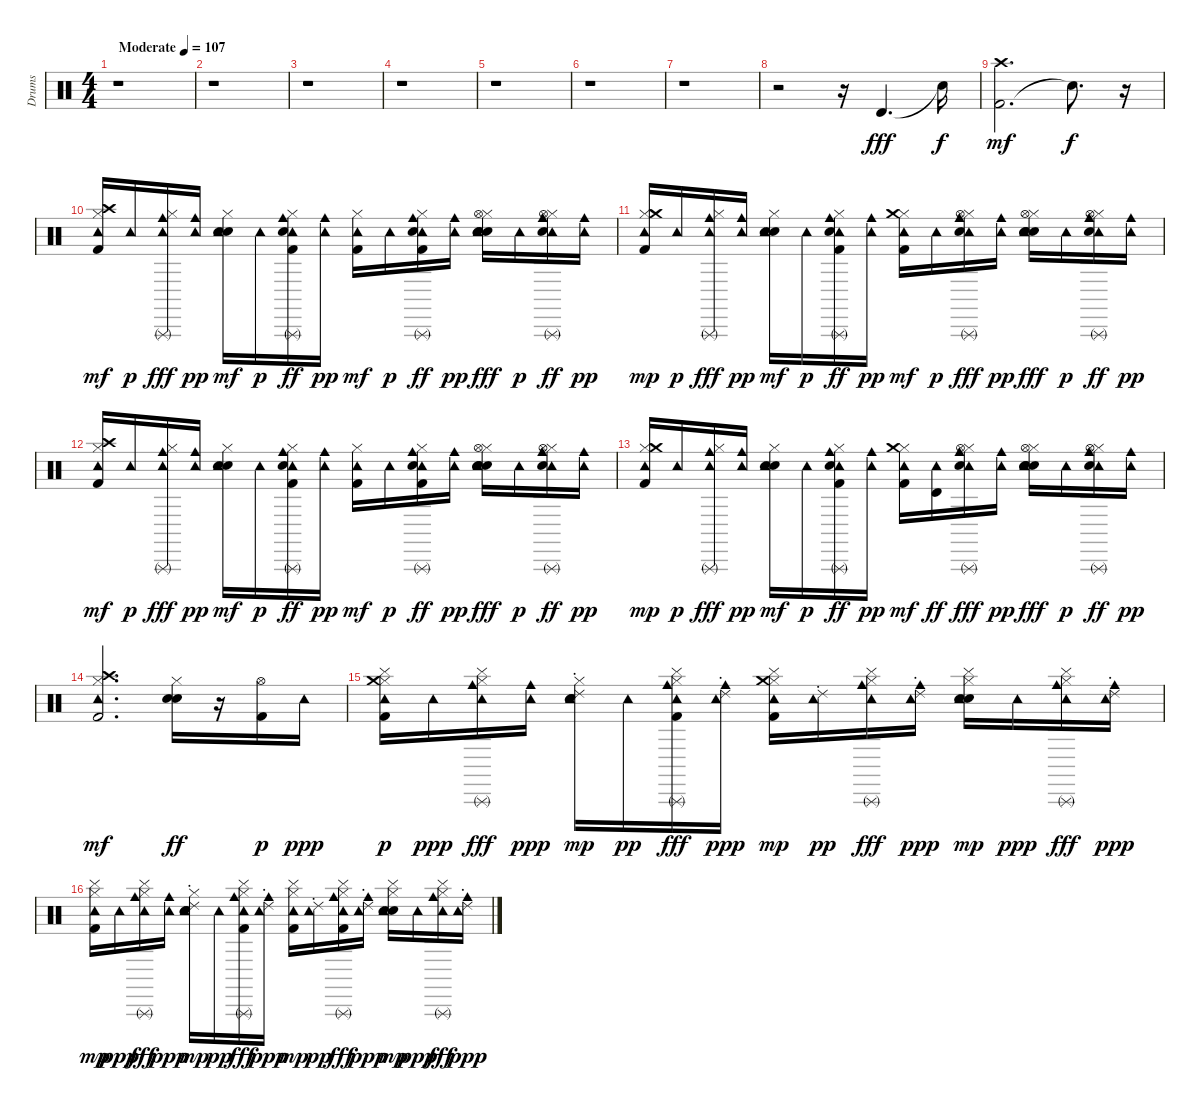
\track ("Drums" "Drums") {instrument percussion}
\staff {score}
\articulation defaults
\ts (4 4)
\tempo (107 "Moderate")
\clef neutral
\ks c
r.1{dy fff} |
r.1 |
r.1 |
r.1 |
r.1 |
r.1 |
r.1 |
r.2 r.16 "Timbale high (hit)".4{d volume 12} "Snare (hit)"{t}.16{dy f} |
("Kick (hit) 2" "Crash high (hit)").2{d dy mf} "Snare (hit)"{t}.8{d dy f} r.16 |
("Kick (hit) 2" "Hi-Hat (closed)" "Crash high (hit)" "Tambourine (hit)").16{dy mf} "Tambourine (hit)".16{dy p} ("Hi-Hat (closed)" "Tambourine (hit)" "Cowbell medium (hit)" "Triangle (rnute)").16{dy fff} ("Tambourine (hit)" "Cowbell medium (hit)").16{dy pp} ("Hand Clap (hit)" "Electric Snare (hit)" "Hi-Hat (closed)" "Tambourine (hit)").16{dy mf} "Tambourine (hit)".16{dy p} ("Kick (hit) 2" "Hi-Hat (closed)" "Tambourine (hit)" "Cowbell medium (hit)" "Triangle (rnute)" "Metronome (bell)").16{dy ff} ("Tambourine (hit)" "Cowbell medium (hit)").16{dy pp} ("Kick (hit) 2" "Hi-Hat (closed)" "Tambourine (hit)").16{dy mf} "Tambourine (hit)".16{dy p} ("Kick (hit) 2" "Hi-Hat (closed)" "Tambourine (hit)" "Cowbell medium (hit)" "Triangle (rnute)" "Metronome (bell)").16{dy ff} ("Tambourine (hit)" "Cowbell medium (hit)").16{dy pp} ("Hand Clap (hit)" "Electric Snare (hit)" "Hi-Hat (closed)" "Tambourine (hit)" "Metronome (bell)" "Hi-Hat (open)").16{dy fff} "Tambourine (hit)".16{dy p} ("Hi-Hat (closed)" "Tambourine (hit)" "Cowbell medium (hit)" "Triangle (rnute)" "Metronome (bell)" "Hi-Hat (open)").16{dy ff} ("Tambourine (hit)" "Cowbell medium (hit)").16{dy pp} |
("Kick (hit) 2" "Hi-Hat (closed)" "Tambourine (hit)" "Crash medium (hit)").16{dy mp} "Tambourine (hit)".16{dy p} ("Hi-Hat (closed)" "Tambourine (hit)" "Cowbell medium (hit)" "Triangle (rnute)").16{dy fff} ("Tambourine (hit)" "Cowbell medium (hit)").16{dy pp} ("Hand Clap (hit)" "Electric Snare (hit)" "Hi-Hat (closed)" "Tambourine (hit)").16{dy mf} "Tambourine (hit)".16{dy p} ("Kick (hit) 2" "Hi-Hat (closed)" "Tambourine (hit)" "Cowbell medium (hit)" "Triangle (rnute)" "Metronome (bell)").16{dy ff} ("Tambourine (hit)" "Cowbell medium (hit)").16{dy pp} ("Kick (hit) 2" "Hi-Hat (closed)" "Tambourine (hit)" "Crash medium (hit)").16{dy mf} "Tambourine (hit)".16{dy p} ("Hi-Hat (closed)" "Tambourine (hit)" "Cowbell medium (hit)" "Triangle (rnute)" "Metronome (bell)" "Hi-Hat (open)").16{dy fff} ("Tambourine (hit)" "Cowbell medium (hit)").16{dy pp} ("Hand Clap (hit)" "Electric Snare (hit)" "Hi-Hat (closed)" "Tambourine (hit)" "Metronome (bell)" "Hi-Hat (open)").16{dy fff} "Tambourine (hit)".16{dy p} ("Hi-Hat (closed)" "Tambourine (hit)" "Cowbell medium (hit)" "Triangle (rnute)" "Metronome (bell)" "Hi-Hat (open)").16{dy ff} ("Tambourine (hit)" "Cowbell medium (hit)").16{dy pp} |
("Kick (hit) 2" "Hi-Hat (closed)" "Crash high (hit)" "Tambourine (hit)").16{dy mf} "Tambourine (hit)".16{dy p} ("Hi-Hat (closed)" "Tambourine (hit)" "Cowbell medium (hit)" "Triangle (rnute)").16{dy fff} ("Tambourine (hit)" "Cowbell medium (hit)").16{dy pp} ("Hand Clap (hit)" "Electric Snare (hit)" "Hi-Hat (closed)" "Tambourine (hit)").16{dy mf} "Tambourine (hit)".16{dy p} ("Kick (hit) 2" "Hi-Hat (closed)" "Tambourine (hit)" "Cowbell medium (hit)" "Triangle (rnute)" "Metronome (bell)").16{dy ff} ("Tambourine (hit)" "Cowbell medium (hit)").16{dy pp} ("Kick (hit) 2" "Hi-Hat (closed)" "Tambourine (hit)").16{dy mf} "Tambourine (hit)".16{dy p} ("Kick (hit) 2" "Hi-Hat (closed)" "Tambourine (hit)" "Cowbell medium (hit)" "Triangle (rnute)" "Metronome (bell)").16{dy ff} ("Tambourine (hit)" "Cowbell medium (hit)").16{dy pp} ("Hand Clap (hit)" "Electric Snare (hit)" "Hi-Hat (closed)" "Tambourine (hit)" "Metronome (bell)" "Hi-Hat (open)").16{dy fff} "Tambourine (hit)".16{dy p} ("Hi-Hat (closed)" "Tambourine (hit)" "Cowbell medium (hit)" "Triangle (rnute)" "Metronome (bell)" "Hi-Hat (open)").16{dy ff} ("Tambourine (hit)" "Cowbell medium (hit)").16{dy pp} |
("Kick (hit) 2" "Hi-Hat (closed)" "Tambourine (hit)" "Crash medium (hit)").16{dy mp} "Tambourine (hit)".16{dy p} ("Hi-Hat (closed)" "Tambourine (hit)" "Cowbell medium (hit)" "Triangle (rnute)").16{dy fff} ("Tambourine (hit)" "Cowbell medium (hit)").16{dy pp} ("Hand Clap (hit)" "Electric Snare (hit)" "Hi-Hat (closed)" "Tambourine (hit)").16{dy mf} "Tambourine (hit)".16{dy p} ("Kick (hit) 2" "Hi-Hat (closed)" "Tambourine (hit)" "Cowbell medium (hit)" "Triangle (rnute)" "Metronome (bell)").16{dy ff} ("Tambourine (hit)" "Cowbell medium (hit)").16{dy pp} ("Kick (hit) 2" "Hi-Hat (closed)" "Tambourine (hit)" "Crash medium (hit)").16{dy mf} ("Tambourine (hit)" "Timbale high (hit)").16{dy ff} ("Hi-Hat (closed)" "Tambourine (hit)" "Cowbell medium (hit)" "Triangle (rnute)" "Metronome (bell)" "Hi-Hat (open)").16{dy fff} ("Tambourine (hit)" "Cowbell medium (hit)").16{dy pp} ("Hand Clap (hit)" "Electric Snare (hit)" "Hi-Hat (closed)" "Tambourine (hit)" "Metronome (bell)" "Hi-Hat (open)").16{dy fff} "Tambourine (hit)".16{dy p} ("Hi-Hat (closed)" "Tambourine (hit)" "Cowbell medium (hit)" "Triangle (rnute)" "Metronome (bell)" "Hi-Hat (open)").16{dy ff} ("Tambourine (hit)" "Cowbell medium (hit)").16{dy pp} |
("Kick (hit) 2" "Hi-Hat (closed)" "Crash high (hit)" "Tambourine (hit)").2{d dy mf} ("Hand Clap (hit)" "Electric Snare (hit)" "Hi-Hat (closed)").16{dy ff} r.16 ("Kick (hit) 2" "Hi-Hat (open)").16{dy p} "Tambourine (hit)".16{dy ppp} |
("Cymbal (hit)" "Kick (hit) 2" "Hi-Hat (closed)" "Tambourine (hit)" "Crash medium (hit)").16{dy p} "Tambourine (hit)".16{dy ppp} ("Cymbal (hit)" "Hi-Hat (closed)" "Tambourine (hit)" "Cowbell medium (hit)" "Triangle (rnute)").16{dy fff} ("Tambourine (hit)" "Cowbell medium (hit)").16{dy ppp} ("Ride (choke) 2" "Hand Clap (hit)" "Electric Snare (hit)" "Hi-Hat (closed)" "Tambourine (hit)").16{dy mp} "Tambourine (hit)".16{dy pp} ("Cymbal (hit)" "Kick (hit) 2" "Hi-Hat (closed)" "Tambourine (hit)" "Cowbell medium (hit)" "Triangle (rnute)").16{dy fff} ("Ride (choke) 2" "Tambourine (hit)" "Cowbell medium (hit)").16{dy ppp} ("Cymbal (hit)" "Kick (hit) 2" "Hi-Hat (closed)" "Tambourine (hit)" "Crash medium (hit)").16{dy mp} ("Ride (choke) 2" "Tambourine (hit)").16{dy pp} ("Cymbal (hit)" "Hi-Hat (closed)" "Tambourine (hit)" "Cowbell medium (hit)" "Triangle (rnute)").16{dy fff} ("Ride (choke) 2" "Tambourine (hit)" "Cowbell medium (hit)").16{dy ppp} ("Cymbal (hit)" "Hand Clap (hit)" "Electric Snare (hit)" "Hi-Hat (closed)" "Tambourine (hit)").16{dy mp} "Tambourine (hit)".16{dy ppp} ("Cymbal (hit)" "Hi-Hat (closed)" "Tambourine (hit)" "Cowbell medium (hit)" "Triangle (rnute)").16{dy fff} ("Ride (choke) 2" "Tambourine (hit)" "Cowbell medium (hit)").16{dy ppp} |
("Cymbal (hit)" "Kick (hit) 2" "Hi-Hat (closed)" "Tambourine (hit)").16{dy mp} "Tambourine (hit)".16{dy ppp} ("Cymbal (hit)" "Hi-Hat (closed)" "Tambourine (hit)" "Cowbell medium (hit)" "Triangle (rnute)").16{dy fff} ("Tambourine (hit)" "Cowbell medium (hit)").16{dy ppp} ("Ride (choke) 2" "Hand Clap (hit)" "Electric Snare (hit)" "Hi-Hat (closed)" "Tambourine (hit)").16{dy mp} "Tambourine (hit)".16{dy pp} ("Cymbal (hit)" "Kick (hit) 2" "Hi-Hat (closed)" "Tambourine (hit)" "Cowbell medium (hit)" "Triangle (rnute)").16{dy fff} ("Ride (choke) 2" "Tambourine (hit)" "Cowbell medium (hit)").16{dy ppp} ("Cymbal (hit)" "Kick (hit) 2" "Hi-Hat (closed)" "Tambourine (hit)").16{dy mp} ("Ride (choke) 2" "Tambourine (hit)").16{dy pp} ("Cymbal (hit)" "Kick (hit) 2" "Hi-Hat (closed)" "Tambourine (hit)" "Cowbell medium (hit)" "Triangle (rnute)").16{dy fff} ("Ride (choke) 2" "Tambourine (hit)" "Cowbell medium (hit)").16{dy ppp} ("Cymbal (hit)" "Hand Clap (hit)" "Electric Snare (hit)" "Hi-Hat (closed)" "Tambourine (hit)").16{dy mp} "Tambourine (hit)".16{dy ppp} ("Cymbal (hit)" "Hi-Hat (closed)" "Tambourine (hit)" "Cowbell medium (hit)" "Triangle (rnute)").16{dy fff} ("Ride (choke) 2" "Tambourine (hit)" "Cowbell medium (hit)").16{dy ppp}
